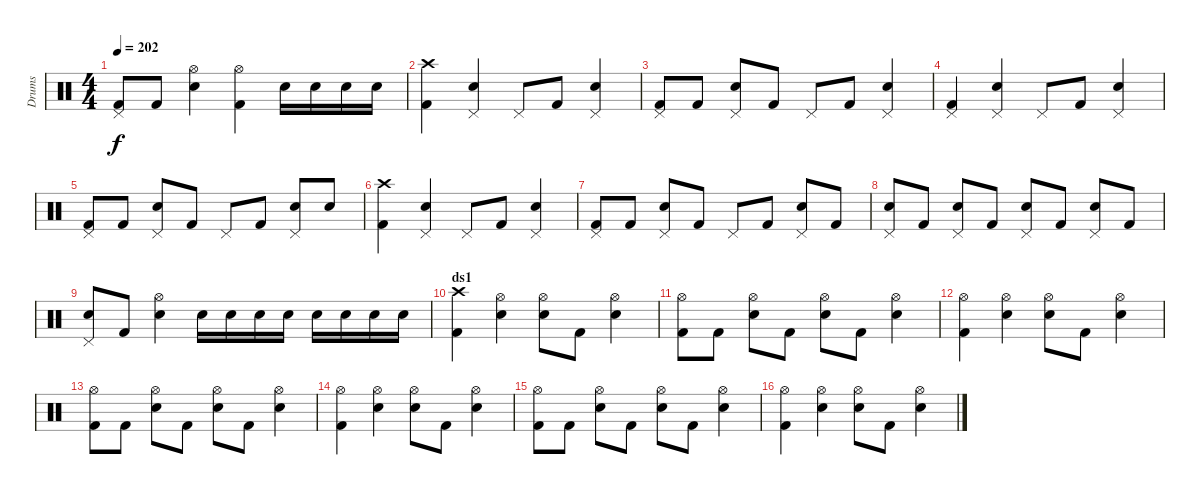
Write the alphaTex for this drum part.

\track ("Drums" "Drums") {instrument percussion}
\staff {score}
\articulation defaults
\ts (4 4)
\tempo 202
\clef neutral
\ks c
("Pedal Hi-Hat (hit)" "Kick (hit) 2").8{dy f} "Kick (hit) 2".8 ("Hi-Hat (open)" "Electric Snare (hit)").4 ("Hi-Hat (open)" "Kick (hit) 2").4 "Electric Snare (hit)".16 "Electric Snare (hit)".16 "Electric Snare (hit)".16 "Electric Snare (hit)".16 |
("Crash high (hit)" "Kick (hit) 2").4 ("Pedal Hi-Hat (hit)" "Electric Snare (hit)").4 "Pedal Hi-Hat (hit)".8 "Kick (hit) 2".8 ("Pedal Hi-Hat (hit)" "Electric Snare (hit)").4 |
("Pedal Hi-Hat (hit)" "Kick (hit) 2").8 "Kick (hit) 2".8 ("Pedal Hi-Hat (hit)" "Electric Snare (hit)").8 "Kick (hit) 2".8 "Pedal Hi-Hat (hit)".8 "Kick (hit) 2".8 ("Pedal Hi-Hat (hit)" "Electric Snare (hit)").4 |
("Pedal Hi-Hat (hit)" "Kick (hit) 2").4 ("Pedal Hi-Hat (hit)" "Electric Snare (hit)").4 "Pedal Hi-Hat (hit)".8 "Kick (hit) 2".8 ("Pedal Hi-Hat (hit)" "Electric Snare (hit)").4 |
("Pedal Hi-Hat (hit)" "Kick (hit) 2").8 "Kick (hit) 2".8 ("Pedal Hi-Hat (hit)" "Electric Snare (hit)").8 "Kick (hit) 2".8 "Pedal Hi-Hat (hit)".8 "Kick (hit) 2".8 ("Pedal Hi-Hat (hit)" "Electric Snare (hit)").8 "Electric Snare (hit)".8 |
("Crash high (hit)" "Kick (hit) 2").4 ("Pedal Hi-Hat (hit)" "Electric Snare (hit)").4 "Pedal Hi-Hat (hit)".8 "Kick (hit) 2".8 ("Pedal Hi-Hat (hit)" "Electric Snare (hit)").4 |
("Pedal Hi-Hat (hit)" "Kick (hit) 2").8 "Kick (hit) 2".8 ("Pedal Hi-Hat (hit)" "Electric Snare (hit)").8 "Kick (hit) 2".8 "Pedal Hi-Hat (hit)".8 "Kick (hit) 2".8 ("Pedal Hi-Hat (hit)" "Electric Snare (hit)").8 "Kick (hit) 2".8 |
("Pedal Hi-Hat (hit)" "Electric Snare (hit)").8 "Kick (hit) 2".8 ("Pedal Hi-Hat (hit)" "Electric Snare (hit)").8 "Kick (hit) 2".8 ("Pedal Hi-Hat (hit)" "Electric Snare (hit)").8 "Kick (hit) 2".8 ("Pedal Hi-Hat (hit)" "Electric Snare (hit)").8 "Kick (hit) 2".8 |
("Pedal Hi-Hat (hit)" "Electric Snare (hit)").8 "Kick (hit) 2".8 ("Hi-Hat (open)" "Electric Snare (hit)").4 "Electric Snare (hit)".16 "Electric Snare (hit)".16 "Electric Snare (hit)".16 "Electric Snare (hit)".16 "Electric Snare (hit)".16 "Electric Snare (hit)".16 "Electric Snare (hit)".16 "Electric Snare (hit)".16 |
\section ("" "ds1")
("Crash high (hit)" "Kick (hit) 2").4 ("Hi-Hat (open)" "Electric Snare (hit)").4 ("Hi-Hat (open)" "Electric Snare (hit)").8 "Kick (hit) 2".8 ("Hi-Hat (open)" "Electric Snare (hit)").4 |
("Hi-Hat (open)" "Kick (hit) 2").8 "Kick (hit) 2".8 ("Hi-Hat (open)" "Electric Snare (hit)").8 "Kick (hit) 2".8 ("Hi-Hat (open)" "Electric Snare (hit)").8 "Kick (hit) 2".8 ("Hi-Hat (open)" "Electric Snare (hit)").4 |
("Hi-Hat (open)" "Kick (hit) 2").4 ("Hi-Hat (open)" "Electric Snare (hit)").4 ("Hi-Hat (open)" "Electric Snare (hit)").8 "Kick (hit) 2".8 ("Hi-Hat (open)" "Electric Snare (hit)").4 |
("Hi-Hat (open)" "Kick (hit) 2").8 "Kick (hit) 2".8 ("Hi-Hat (open)" "Electric Snare (hit)").8 "Kick (hit) 2".8 ("Hi-Hat (open)" "Electric Snare (hit)").8 "Kick (hit) 2".8 ("Hi-Hat (open)" "Electric Snare (hit)").4 |
("Hi-Hat (open)" "Kick (hit) 2").4 ("Hi-Hat (open)" "Electric Snare (hit)").4 ("Hi-Hat (open)" "Electric Snare (hit)").8 "Kick (hit) 2".8 ("Hi-Hat (open)" "Electric Snare (hit)").4 |
("Hi-Hat (open)" "Kick (hit) 2").8 "Kick (hit) 2".8 ("Hi-Hat (open)" "Electric Snare (hit)").8 "Kick (hit) 2".8 ("Hi-Hat (open)" "Electric Snare (hit)").8 "Kick (hit) 2".8 ("Hi-Hat (open)" "Electric Snare (hit)").4 |
("Hi-Hat (open)" "Kick (hit) 2").4 ("Hi-Hat (open)" "Electric Snare (hit)").4 ("Hi-Hat (open)" "Electric Snare (hit)").8 "Kick (hit) 2".8 ("Hi-Hat (open)" "Electric Snare (hit)").4
